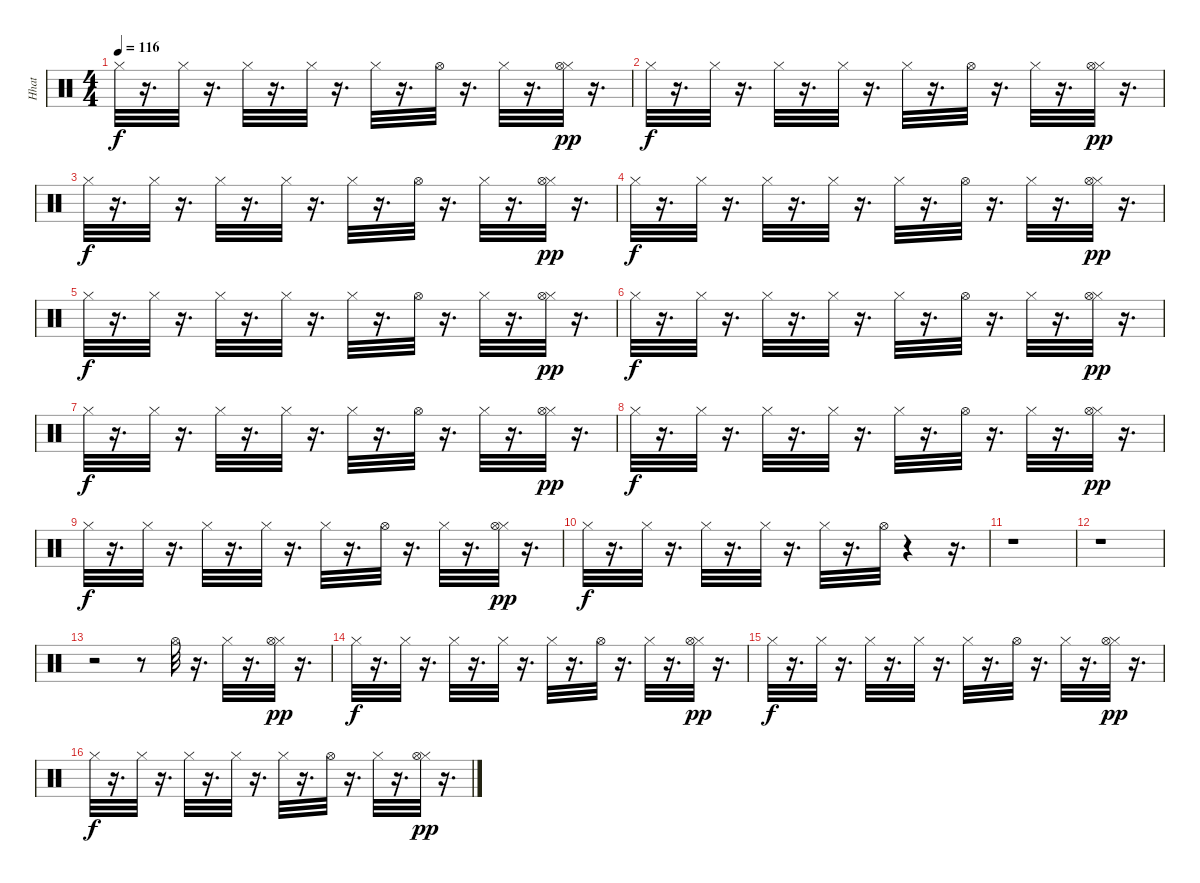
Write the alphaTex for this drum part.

\track ("Hhat" "Hhat") {instrument percussion}
\staff {score}
\articulation defaults
\ts (4 4)
\tempo 116
\clef neutral
\ks c "Hi-Hat (closed)".32{dy f}
r.16{d} "Hi-Hat (closed)".32 r.16{d} "Hi-Hat (closed)".32 r.16{d} "Hi-Hat (closed)".32 r.16{d} "Hi-Hat (closed)".32 r.16{d} "Hi-Hat (open)".32 r.16{d} "Hi-Hat (closed)".32 r.16{d} ("Hi-Hat (closed)" "Hi-Hat (open)").32{dy pp} r.16{d} |
"Hi-Hat (closed)".32{dy f} r.16{d} "Hi-Hat (closed)".32 r.16{d} "Hi-Hat (closed)".32 r.16{d} "Hi-Hat (closed)".32 r.16{d} "Hi-Hat (closed)".32 r.16{d} "Hi-Hat (open)".32 r.16{d} "Hi-Hat (closed)".32 r.16{d} ("Hi-Hat (closed)" "Hi-Hat (open)").32{dy pp} r.16{d} |
"Hi-Hat (closed)".32{dy f} r.16{d} "Hi-Hat (closed)".32 r.16{d} "Hi-Hat (closed)".32 r.16{d} "Hi-Hat (closed)".32 r.16{d} "Hi-Hat (closed)".32 r.16{d} "Hi-Hat (open)".32 r.16{d} "Hi-Hat (closed)".32 r.16{d} ("Hi-Hat (closed)" "Hi-Hat (open)").32{dy pp} r.16{d} |
"Hi-Hat (closed)".32{dy f} r.16{d} "Hi-Hat (closed)".32 r.16{d} "Hi-Hat (closed)".32 r.16{d} "Hi-Hat (closed)".32 r.16{d} "Hi-Hat (closed)".32 r.16{d} "Hi-Hat (open)".32 r.16{d} "Hi-Hat (closed)".32 r.16{d} ("Hi-Hat (closed)" "Hi-Hat (open)").32{dy pp} r.16{d} |
"Hi-Hat (closed)".32{dy f} r.16{d} "Hi-Hat (closed)".32 r.16{d} "Hi-Hat (closed)".32 r.16{d} "Hi-Hat (closed)".32 r.16{d} "Hi-Hat (closed)".32 r.16{d} "Hi-Hat (open)".32 r.16{d} "Hi-Hat (closed)".32 r.16{d} ("Hi-Hat (closed)" "Hi-Hat (open)").32{dy pp} r.16{d} |
"Hi-Hat (closed)".32{dy f} r.16{d} "Hi-Hat (closed)".32 r.16{d} "Hi-Hat (closed)".32 r.16{d} "Hi-Hat (closed)".32 r.16{d} "Hi-Hat (closed)".32 r.16{d} "Hi-Hat (open)".32 r.16{d} "Hi-Hat (closed)".32 r.16{d} ("Hi-Hat (closed)" "Hi-Hat (open)").32{dy pp} r.16{d} |
"Hi-Hat (closed)".32{dy f} r.16{d} "Hi-Hat (closed)".32 r.16{d} "Hi-Hat (closed)".32 r.16{d} "Hi-Hat (closed)".32 r.16{d} "Hi-Hat (closed)".32 r.16{d} "Hi-Hat (open)".32 r.16{d} "Hi-Hat (closed)".32 r.16{d} ("Hi-Hat (closed)" "Hi-Hat (open)").32{dy pp} r.16{d} |
"Hi-Hat (closed)".32{dy f} r.16{d} "Hi-Hat (closed)".32 r.16{d} "Hi-Hat (closed)".32 r.16{d} "Hi-Hat (closed)".32 r.16{d} "Hi-Hat (closed)".32 r.16{d} "Hi-Hat (open)".32 r.16{d} "Hi-Hat (closed)".32 r.16{d} ("Hi-Hat (closed)" "Hi-Hat (open)").32{dy pp} r.16{d} |
"Hi-Hat (closed)".32{dy f} r.16{d} "Hi-Hat (closed)".32 r.16{d} "Hi-Hat (closed)".32 r.16{d} "Hi-Hat (closed)".32 r.16{d} "Hi-Hat (closed)".32 r.16{d} "Hi-Hat (open)".32 r.16{d} "Hi-Hat (closed)".32 r.16{d} ("Hi-Hat (closed)" "Hi-Hat (open)").32{dy pp} r.16{d} |
"Hi-Hat (closed)".32{dy f} r.16{d} "Hi-Hat (closed)".32 r.16{d} "Hi-Hat (closed)".32 r.16{d} "Hi-Hat (closed)".32 r.16{d} "Hi-Hat (closed)".32 r.16{d} "Hi-Hat (open)".32 r.4 r.16{d} |
r.1 |
r.1 |
r.2 r.8 "Hi-Hat (open)".32 r.16{d} "Hi-Hat (closed)".32 r.16{d} ("Hi-Hat (closed)" "Hi-Hat (open)").32{dy pp} r.16{d} |
"Hi-Hat (closed)".32{dy f} r.16{d} "Hi-Hat (closed)".32 r.16{d} "Hi-Hat (closed)".32 r.16{d} "Hi-Hat (closed)".32 r.16{d} "Hi-Hat (closed)".32 r.16{d} "Hi-Hat (open)".32 r.16{d} "Hi-Hat (closed)".32 r.16{d} ("Hi-Hat (closed)" "Hi-Hat (open)").32{dy pp} r.16{d} |
"Hi-Hat (closed)".32{dy f} r.16{d} "Hi-Hat (closed)".32 r.16{d} "Hi-Hat (closed)".32 r.16{d} "Hi-Hat (closed)".32 r.16{d} "Hi-Hat (closed)".32 r.16{d} "Hi-Hat (open)".32 r.16{d} "Hi-Hat (closed)".32 r.16{d} ("Hi-Hat (closed)" "Hi-Hat (open)").32{dy pp} r.16{d} |
"Hi-Hat (closed)".32{dy f} r.16{d} "Hi-Hat (closed)".32 r.16{d} "Hi-Hat (closed)".32 r.16{d} "Hi-Hat (closed)".32 r.16{d} "Hi-Hat (closed)".32 r.16{d} "Hi-Hat (open)".32 r.16{d} "Hi-Hat (closed)".32 r.16{d} ("Hi-Hat (closed)" "Hi-Hat (open)").32{dy pp} r.16{d}
